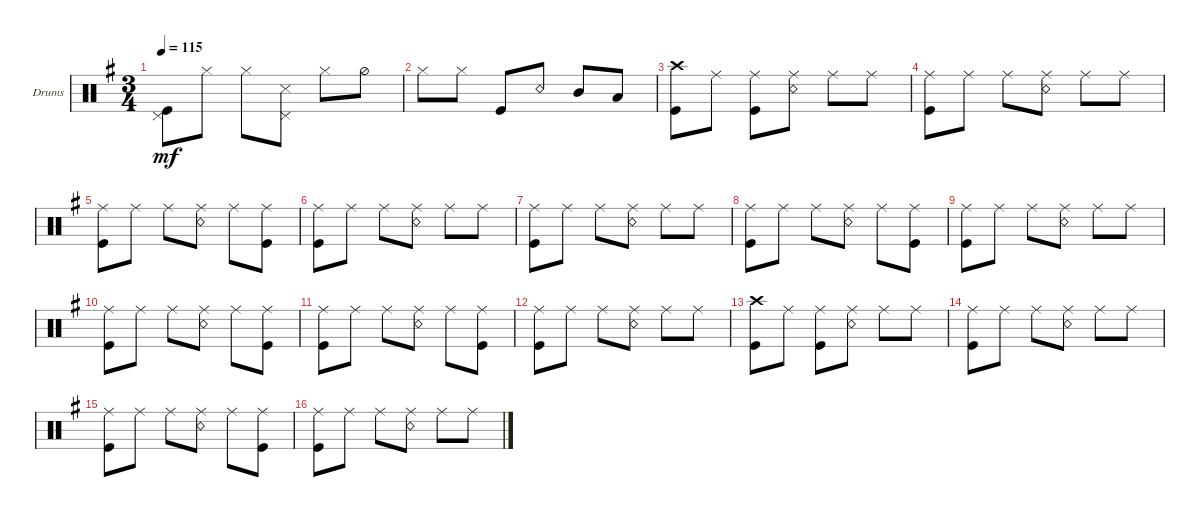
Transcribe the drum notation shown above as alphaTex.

\defaultSystemsLayout 4
\bracketExtendMode groupsimilarinstruments
\firstSystemTrackNameOrientation horizontal
\otherSystemsTrackNameOrientation horizontal
\track ("Drumkit" "Drums") {multiBarRest instrument percussion}
\staff {score}
\articulation defaults
\ts (3 4)
\tempo 115
\clef neutral
\ks eminor
("Kick (hit)" "Pedal Hi-Hat (hit)").8{dy mf} "Hi-Hat (closed)".8 "Hi-Hat (closed)".8 ("Pedal Hi-Hat (hit)" "Snare (side stick) 3").8 "Hi-Hat (closed)".8 "Hi-Hat (half)".8 |
"Hi-Hat (closed)".8 "Hi-Hat (closed)".8 "Kick (hit)".8 "Snare (rim shot)".8 "Mid Tom (hit)".8 "Low Tom (hit)".8 |
("Kick (hit)" "Crash high (hit)").8 "Ride (middle)".8 ("Ride (middle)" "Kick (hit)").8 ("Ride (middle)" "Snare (rim shot)").8 "Ride (middle)".8 "Ride (middle)".8 |
("Kick (hit)" "Ride (middle)").8 "Ride (middle)".8 "Ride (middle)".8 ("Ride (middle)" "Snare (rim shot)").8 "Ride (middle)".8 "Ride (middle)".8 |
("Kick (hit)" "Ride (middle)").8 "Ride (middle)".8 "Ride (middle)".8 ("Ride (middle)" "Snare (rim shot)").8 "Ride (middle)".8 ("Ride (middle)" "Kick (hit)").8 |
("Kick (hit)" "Ride (middle)").8 "Ride (middle)".8 "Ride (middle)".8 ("Ride (middle)" "Snare (rim shot)").8 "Ride (middle)".8 "Ride (middle)".8 |
("Kick (hit)" "Ride (middle)").8 "Ride (middle)".8 "Ride (middle)".8 ("Ride (middle)" "Snare (rim shot)").8 "Ride (middle)".8 "Ride (middle)".8 |
("Kick (hit)" "Ride (middle)").8 "Ride (middle)".8 "Ride (middle)".8 ("Ride (middle)" "Snare (rim shot)").8 "Ride (middle)".8 ("Ride (middle)" "Kick (hit)").8 |
("Kick (hit)" "Ride (middle)").8 "Ride (middle)".8 "Ride (middle)".8 ("Ride (middle)" "Snare (rim shot)").8 "Ride (middle)".8 "Ride (middle)".8 |
("Kick (hit)" "Ride (middle)").8 "Ride (middle)".8 "Ride (middle)".8 ("Ride (middle)" "Snare (rim shot)").8 "Ride (middle)".8 ("Ride (middle)" "Kick (hit)").8 |
("Kick (hit)" "Ride (middle)").8 "Ride (middle)".8 "Ride (middle)".8 ("Ride (middle)" "Snare (rim shot)").8 "Ride (middle)".8 ("Ride (middle)" "Kick (hit)").8 |
("Kick (hit)" "Ride (middle)").8 "Ride (middle)".8 "Ride (middle)".8 ("Ride (middle)" "Snare (rim shot)").8 "Ride (middle)".8 "Ride (middle)".8 |
("Kick (hit)" "Crash high (hit)").8 "Ride (middle)".8 ("Ride (middle)" "Kick (hit)").8 ("Ride (middle)" "Snare (rim shot)").8 "Ride (middle)".8 "Ride (middle)".8 |
("Kick (hit)" "Ride (middle)").8 "Ride (middle)".8 "Ride (middle)".8 ("Ride (middle)" "Snare (rim shot)").8 "Ride (middle)".8 "Ride (middle)".8 |
("Kick (hit)" "Ride (middle)").8 "Ride (middle)".8 "Ride (middle)".8 ("Ride (middle)" "Snare (rim shot)").8 "Ride (middle)".8 ("Ride (middle)" "Kick (hit)").8 |
("Kick (hit)" "Ride (middle)").8 "Ride (middle)".8 "Ride (middle)".8 ("Ride (middle)" "Snare (rim shot)").8 "Ride (middle)".8 "Ride (middle)".8
